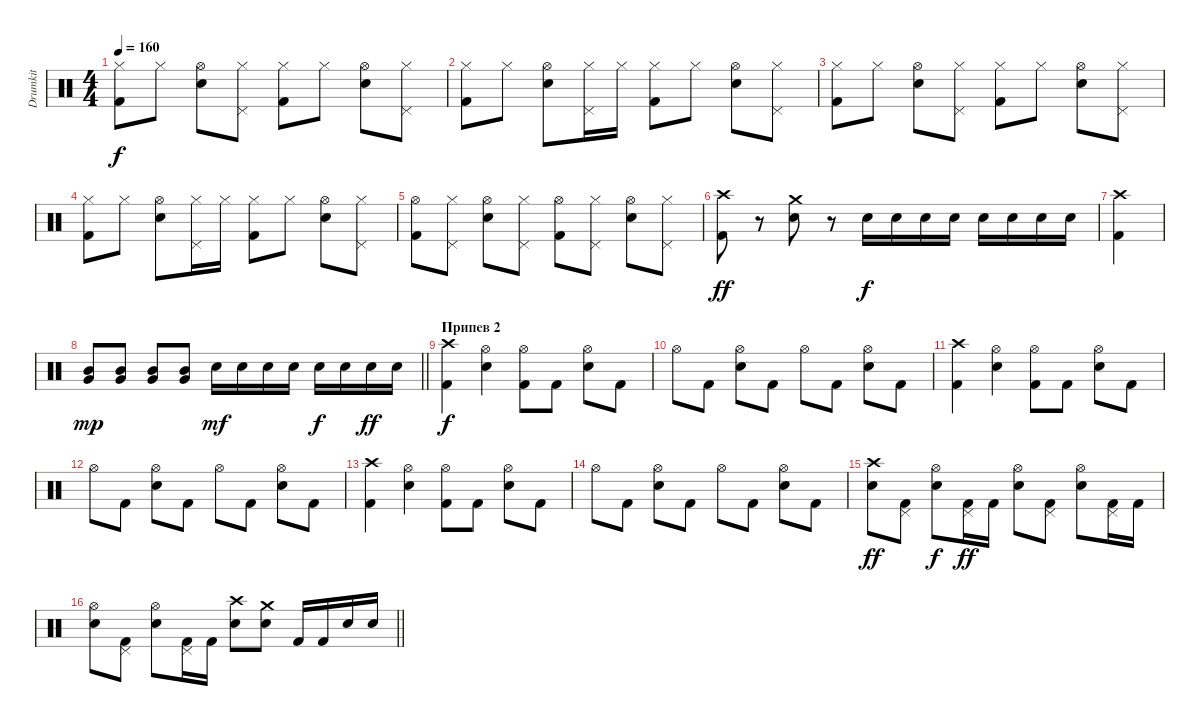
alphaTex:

\track ("Drumkit" "Drumkit") {instrument percussion}
\staff {score}
\articulation defaults
\ts (4 4)
\tempo 160
\clef neutral
\ks c
("Hi-Hat (closed)" "Kick (hit) 2").8{dy f} "Hi-Hat (closed)".8 ("Hi-Hat (open)" "Electric Snare (hit)").8 ("Hi-Hat (closed)" "Pedal Hi-Hat (hit)").8 ("Hi-Hat (closed)" "Kick (hit) 2").8 "Hi-Hat (closed)".8 ("Hi-Hat (open)" "Electric Snare (hit)").8 ("Hi-Hat (closed)" "Pedal Hi-Hat (hit)").8 |
("Hi-Hat (closed)" "Kick (hit) 2").8 "Hi-Hat (closed)".8 ("Hi-Hat (open)" "Electric Snare (hit)").8 ("Hi-Hat (closed)" "Pedal Hi-Hat (hit)").16 "Hi-Hat (closed)".16 ("Hi-Hat (closed)" "Kick (hit) 2").8 "Hi-Hat (closed)".8 ("Hi-Hat (open)" "Electric Snare (hit)").8 ("Hi-Hat (closed)" "Pedal Hi-Hat (hit)").8 |
("Hi-Hat (closed)" "Kick (hit) 2").8 "Hi-Hat (closed)".8 ("Hi-Hat (open)" "Electric Snare (hit)").8 ("Hi-Hat (closed)" "Pedal Hi-Hat (hit)").8 ("Hi-Hat (closed)" "Kick (hit) 2").8 "Hi-Hat (closed)".8 ("Hi-Hat (open)" "Electric Snare (hit)").8 ("Hi-Hat (closed)" "Pedal Hi-Hat (hit)").8 |
("Hi-Hat (closed)" "Kick (hit) 2").8 "Hi-Hat (closed)".8 ("Hi-Hat (open)" "Electric Snare (hit)").8 ("Hi-Hat (closed)" "Pedal Hi-Hat (hit)").16 "Hi-Hat (closed)".16 ("Hi-Hat (closed)" "Kick (hit) 2").8 "Hi-Hat (closed)".8 ("Hi-Hat (open)" "Electric Snare (hit)").8 ("Hi-Hat (closed)" "Pedal Hi-Hat (hit)").8 |
("Hi-Hat (open)" "Kick (hit) 2").8 ("Hi-Hat (closed)" "Pedal Hi-Hat (hit)").8 ("Hi-Hat (open)" "Electric Snare (hit)").8 ("Hi-Hat (closed)" "Pedal Hi-Hat (hit)").8 ("Hi-Hat (open)" "Kick (hit) 2").8 ("Hi-Hat (closed)" "Pedal Hi-Hat (hit)").8 ("Hi-Hat (open)" "Electric Snare (hit)").8 ("Hi-Hat (closed)" "Pedal Hi-Hat (hit)").8 |
("Crash high (hit)" "Kick (hit) 2").8{dy ff} r.8 ("Crash medium (hit)" "Electric Snare (hit)").8 r.8 "Electric Snare (hit)".16{dy f} "Electric Snare (hit)".16 "Electric Snare (hit)".16 "Electric Snare (hit)".16 "Electric Snare (hit)".16 "Electric Snare (hit)".16 "Electric Snare (hit)".16 "Electric Snare (hit)".16 |
("Crash high (hit)" "Kick (hit) 2").4 |
\barLineRight lightlight
("Mid Tom (hit)" "Very Low Tom (hit)").8{dy mp} ("Mid Tom (hit)" "Very Low Tom (hit)").8 ("Mid Tom (hit)" "Very Low Tom (hit)").8 ("Mid Tom (hit)" "Very Low Tom (hit)").8 "Electric Snare (hit)".16{dy mf} "Electric Snare (hit)".16 "Electric Snare (hit)".16 "Electric Snare (hit)".16 "Electric Snare (hit)".16{dy f} "Electric Snare (hit)".16 "Electric Snare (hit)".16{dy ff} "Electric Snare (hit)".16 |
\section ("" "Припев 2")
("Crash high (hit)" "Kick (hit) 2").4{dy f} ("Hi-Hat (open)" "Electric Snare (hit)").4 ("Hi-Hat (open)" "Kick (hit) 2").8 "Kick (hit) 2".8 ("Hi-Hat (open)" "Electric Snare (hit)").8 "Kick (hit) 2".8 |
"Hi-Hat (open)".8 "Kick (hit) 2".8 ("Hi-Hat (open)" "Electric Snare (hit)").8 "Kick (hit) 2".8 "Hi-Hat (open)".8 "Kick (hit) 2".8 ("Hi-Hat (open)" "Electric Snare (hit)").8 "Kick (hit) 2".8 |
("Crash high (hit)" "Kick (hit) 2").4 ("Hi-Hat (open)" "Electric Snare (hit)").4 ("Hi-Hat (open)" "Kick (hit) 2").8 "Kick (hit) 2".8 ("Hi-Hat (open)" "Electric Snare (hit)").8 "Kick (hit) 2".8 |
"Hi-Hat (open)".8 "Kick (hit) 2".8 ("Hi-Hat (open)" "Electric Snare (hit)").8 "Kick (hit) 2".8 "Hi-Hat (open)".8 "Kick (hit) 2".8 ("Hi-Hat (open)" "Electric Snare (hit)").8 "Kick (hit) 2".8 |
("Crash high (hit)" "Kick (hit) 2").4 ("Hi-Hat (open)" "Electric Snare (hit)").4 ("Hi-Hat (open)" "Kick (hit) 2").8 "Kick (hit) 2".8 ("Hi-Hat (open)" "Electric Snare (hit)").8 "Kick (hit) 2".8 |
"Hi-Hat (open)".8 "Kick (hit) 2".8 ("Hi-Hat (open)" "Electric Snare (hit)").8 "Kick (hit) 2".8 "Hi-Hat (open)".8 "Kick (hit) 2".8 ("Hi-Hat (open)" "Electric Snare (hit)").8 "Kick (hit) 2".8 |
("Crash high (hit)" "Electric Snare (hit)").8{dy ff} ("Pedal Hi-Hat (hit)" "Kick (hit) 2").8 ("Hi-Hat (open)" "Electric Snare (hit)").8{dy f} ("Pedal Hi-Hat (hit)" "Kick (hit) 2").16{dy ff} "Kick (hit) 2".16 ("Hi-Hat (open)" "Electric Snare (hit)").8 ("Pedal Hi-Hat (hit)" "Kick (hit) 2").8 ("Hi-Hat (open)" "Electric Snare (hit)").8 ("Pedal Hi-Hat (hit)" "Kick (hit) 2").16 "Kick (hit) 2".16 |
\barLineRight lightlight
("Hi-Hat (open)" "Electric Snare (hit)").8 ("Pedal Hi-Hat (hit)" "Kick (hit) 2").8 ("Hi-Hat (open)" "Electric Snare (hit)").8 ("Pedal Hi-Hat (hit)" "Kick (hit) 2").16 "Kick (hit) 2".16 ("Crash high (hit)" "Electric Snare (hit)").8 ("Crash medium (hit)" "Electric Snare (hit)").8 "Kick (hit) 2".16 "Kick (hit) 2".16 "Electric Snare (hit)".16 "Electric Snare (hit)".16
